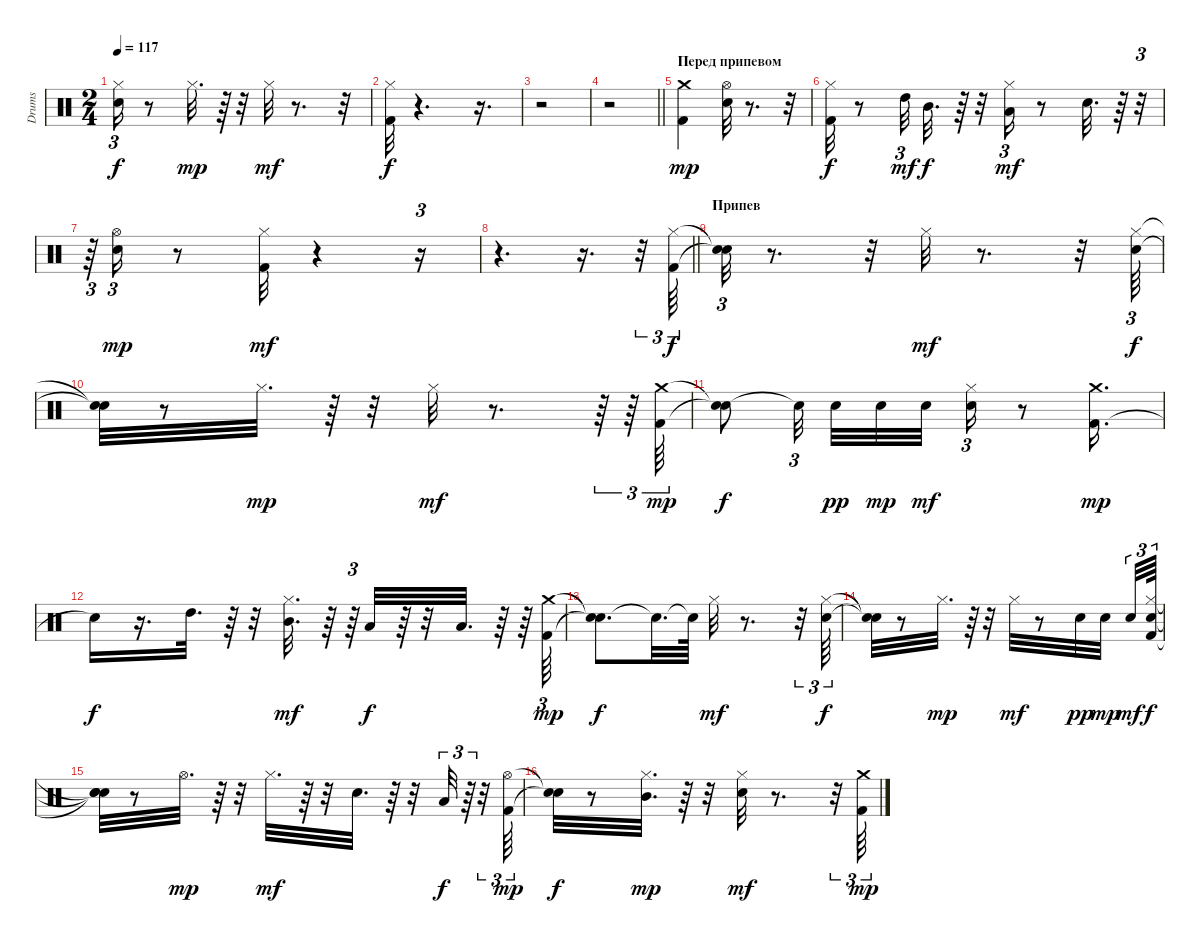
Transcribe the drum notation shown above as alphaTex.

\track ("Drums" "Drums") {instrument percussion}
\staff {score}
\articulation defaults
\ts (2 4)
\tempo 117
\clef neutral
\ks c
("Electric Snare (hit)" "Hi-Hat (closed)").16{tu (3 2) dy f} r.8 "Hi-Hat (closed)".32{d dy mp} r.64 r.32 "Hi-Hat (closed)".32{dy mf} r.8{d} r.32 |
("Kick (hit) 2" "Hi-Hat (closed)").32{dy f} r.4{d} r.16{d} |
r.2 |
\barLineRight lightlight
r.2 |
\section ("" "Перед припевом")
("Kick (hit) 2" "Crash medium (hit)").4{dy mp} ("Electric Snare (hit)" "Hi-Hat (open)").32 r.8{d} r.32 |
("Kick (hit) 2" "Hi-Hat (closed)").32{dy f} r.8 "High Tom (hit)".32{tu (3 2) dy mf} "Mid Tom (hit)".32{d dy f} r.64 r.32 ("Hi-Hat (closed)" "Low Tom (hit)").16{tu (3 2) dy mf} r.8 "Electric Snare (hit)".32{d} r.64 r.32{tu (3 2)} |
r.64{tu (3 2)} ("Electric Snare (hit)" "Hi-Hat (open)").16{tu (3 2) dy mp} r.8 ("Kick (hit) 2" "Hi-Hat (closed)").32{dy mf} r.4 r.16{tu (3 2)} |
\barLineRight lightlight
r.4{d} r.16{d} r.32{tu (3 2)} ("Kick (hit) 2" "Hi-Hat (closed)").64{tu (3 2) dy f} |
\section ("" "Припев")
("Snare (hit)"{t} "Snare (hit)"{t}).32{tu (3 2)} r.8{d} r.32 "Hi-Hat (closed)".32{dy mf} r.8{d} r.32 ("Electric Snare (hit)" "Hi-Hat (closed)").64{tu (3 2) dy f} |
("Snare (hit)"{t} "Snare (hit)"{t}).32 r.8 "Hi-Hat (closed)".32{d dy mp} r.64 r.32 "Hi-Hat (closed)".32{dy mf} r.8{d} r.64{tu (3 2)} r.64{tu (3 2)} ("Kick (hit) 2" "Crash medium (hit)").64{tu (3 2) dy mp} |
("Snare (hit)"{t} "Snare (hit)"{t}).8{dy f} "Snare (hit)"{t}.32{tu (3 2) beam splitsecondary} "Electric Snare (hit)".32{dy pp} "Electric Snare (hit)".32{dy mp} "Electric Snare (hit)".32{dy mf beam splitsecondary} ("Electric Snare (hit)" "Hi-Hat (closed)").16{tu (3 2)} r.8 ("Kick (hit) 2" "Crash medium (hit)").16{d dy mp} |
"Snare (hit)"{t}.16{dy f} r.16{d} "High Tom (hit)".32{d} r.64 r.32 ("Hi-Hat (closed)" "Mid Tom (hit)").32{d dy mf} r.64 r.64{tu (3 2)} "Low Tom (hit)".32{dy f} r.64 r.32 "Low Tom (hit)".32{d} r.64 r.64 ("Kick (hit) 2" "Crash medium (hit)").64{tu (3 2) dy mp} |
("Snare (hit)"{t} "Snare (hit)"{t}).8{d dy f} "Snare (hit)"{t}.32{d} "Snare (hit)"{t}.64 "Hi-Hat (closed)".32{dy mf} r.8{d} r.32{tu (3 2)} ("Electric Snare (hit)" "Hi-Hat (closed)").64{tu (3 2) dy f} |
("Snare (hit)"{t} "Snare (hit)"{t}).32 r.8 "Hi-Hat (closed)".32{d dy mp} r.64 r.32 "Hi-Hat (closed)".32{dy mf} r.8 "Electric Snare (hit)".32{dy pp} "Electric Snare (hit)".32{dy mp beam splitsecondary} "Electric Snare (hit)".32{tu (3 2) dy mf} ("Kick (hit) 2" "Electric Snare (hit)" "Hi-Hat (closed)").64{tu (3 2) dy f} |
("Snare (hit)"{t} "Snare (hit)"{t} "Snare (hit)"{t}).32 r.8 "Hi-Hat (open)".32{d dy mp} r.64 r.32 "Hi-Hat (closed)".32{d dy mf} r.64 r.32 "Electric Snare (hit)".32{d} r.64 r.32 "Low Tom (hit)".32{tu (3 2) dy f} r.64{tu (3 2)} r.32{tu (3 2)} ("Kick (hit) 2" "Hi-Hat (open)").64{tu (3 2) dy mp} |
("Snare (hit)"{t} "Snare (hit)"{t}).32{dy f} r.8 ("Hi-Hat (closed)" "Mid Tom (hit)").32{d dy mp} r.64 r.32 ("Electric Snare (hit)" "Hi-Hat (closed)").32{dy mf} r.8{d} r.32{tu (3 2)} ("Kick (hit) 2" "Crash medium (hit)").64{tu (3 2) dy mp}
